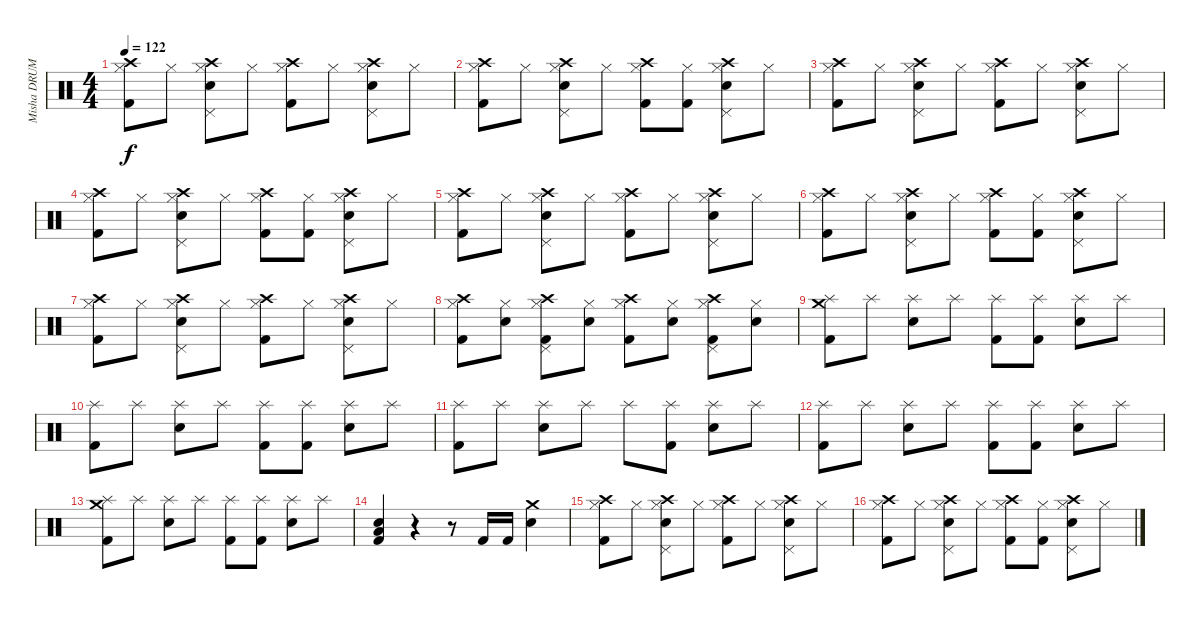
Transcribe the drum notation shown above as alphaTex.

\track ("Misha DRUMS" "Misha DRUM") {instrument percussion}
\staff {score}
\articulation defaults
\ts (4 4)
\tempo 122
\clef neutral
\ks c
("Hi-Hat (closed)" "Crash high (hit)" "Kick (hit) 2").8{dy f} "Hi-Hat (closed)".8 ("Hi-Hat (closed)" "Crash high (hit)" "Pedal Hi-Hat (hit)" "Snare (hit) 2").8 "Hi-Hat (closed)".8 ("Hi-Hat (closed)" "Crash high (hit)" "Kick (hit) 2").8 "Hi-Hat (closed)".8 ("Hi-Hat (closed)" "Crash high (hit)" "Pedal Hi-Hat (hit)" "Snare (hit) 2").8 "Hi-Hat (closed)".8 |
("Hi-Hat (closed)" "Crash high (hit)" "Kick (hit) 2").8 "Hi-Hat (closed)".8 ("Hi-Hat (closed)" "Crash high (hit)" "Pedal Hi-Hat (hit)" "Snare (hit) 2").8 "Hi-Hat (closed)".8 ("Hi-Hat (closed)" "Crash high (hit)" "Kick (hit) 2").8 ("Hi-Hat (closed)" "Kick (hit) 2").8 ("Hi-Hat (closed)" "Crash high (hit)" "Pedal Hi-Hat (hit)" "Snare (hit) 2").8 "Hi-Hat (closed)".8 |
("Hi-Hat (closed)" "Crash high (hit)" "Kick (hit) 2").8 "Hi-Hat (closed)".8 ("Hi-Hat (closed)" "Crash high (hit)" "Pedal Hi-Hat (hit)" "Snare (hit) 2").8 "Hi-Hat (closed)".8 ("Hi-Hat (closed)" "Crash high (hit)" "Kick (hit) 2").8 "Hi-Hat (closed)".8 ("Hi-Hat (closed)" "Crash high (hit)" "Pedal Hi-Hat (hit)" "Snare (hit) 2").8 "Hi-Hat (closed)".8 |
("Hi-Hat (closed)" "Crash high (hit)" "Kick (hit) 2").8 "Hi-Hat (closed)".8 ("Hi-Hat (closed)" "Crash high (hit)" "Pedal Hi-Hat (hit)" "Snare (hit) 2").8 "Hi-Hat (closed)".8 ("Hi-Hat (closed)" "Crash high (hit)" "Kick (hit) 2").8 ("Hi-Hat (closed)" "Kick (hit) 2").8 ("Hi-Hat (closed)" "Crash high (hit)" "Pedal Hi-Hat (hit)" "Snare (hit) 2").8 "Hi-Hat (closed)".8 |
("Hi-Hat (closed)" "Crash high (hit)" "Kick (hit) 2").8 "Hi-Hat (closed)".8 ("Hi-Hat (closed)" "Crash high (hit)" "Pedal Hi-Hat (hit)" "Snare (hit) 2").8 "Hi-Hat (closed)".8 ("Hi-Hat (closed)" "Crash high (hit)" "Kick (hit) 2").8 "Hi-Hat (closed)".8 ("Hi-Hat (closed)" "Crash high (hit)" "Pedal Hi-Hat (hit)" "Snare (hit) 2").8 "Hi-Hat (closed)".8 |
("Hi-Hat (closed)" "Crash high (hit)" "Kick (hit) 2").8 "Hi-Hat (closed)".8 ("Hi-Hat (closed)" "Crash high (hit)" "Pedal Hi-Hat (hit)" "Snare (hit) 2").8 "Hi-Hat (closed)".8 ("Hi-Hat (closed)" "Crash high (hit)" "Kick (hit) 2").8 ("Hi-Hat (closed)" "Kick (hit) 2").8 ("Hi-Hat (closed)" "Crash high (hit)" "Pedal Hi-Hat (hit)" "Snare (hit) 2").8 "Hi-Hat (closed)".8 |
("Hi-Hat (closed)" "Crash high (hit)" "Kick (hit) 2").8 "Hi-Hat (closed)".8 ("Hi-Hat (closed)" "Crash high (hit)" "Pedal Hi-Hat (hit)" "Snare (hit) 2").8 "Hi-Hat (closed)".8 ("Hi-Hat (closed)" "Crash high (hit)" "Kick (hit) 2").8 "Hi-Hat (closed)".8 ("Hi-Hat (closed)" "Crash high (hit)" "Pedal Hi-Hat (hit)" "Snare (hit) 2").8 "Hi-Hat (closed)".8 |
("Hi-Hat (closed)" "Crash high (hit)" "Kick (hit) 2").8 ("Hi-Hat (closed)" "Snare (hit) 2").8 ("Hi-Hat (closed)" "Crash high (hit)" "Pedal Hi-Hat (hit)" "Kick (hit) 2").8 ("Hi-Hat (closed)" "Snare (hit) 2").8 ("Hi-Hat (closed)" "Crash high (hit)" "Kick (hit) 2").8 ("Hi-Hat (closed)" "Snare (hit) 2").8 ("Hi-Hat (closed)" "Crash high (hit)" "Pedal Hi-Hat (hit)" "Kick (hit) 2").8 ("Hi-Hat (closed)" "Snare (hit) 2").8 |
("Splash (hit)" "Crash medium (hit)" "Kick (hit) 2").8 "Splash (hit)".8 ("Splash (hit)" "Snare (hit) 2").8 "Splash (hit)".8 ("Splash (hit)" "Kick (hit) 2").8 ("Splash (hit)" "Kick (hit) 2").8 ("Splash (hit)" "Snare (hit) 2").8 "Splash (hit)".8 |
("Splash (hit)" "Kick (hit) 2").8 "Splash (hit)".8 ("Splash (hit)" "Snare (hit) 2").8 "Splash (hit)".8 ("Splash (hit)" "Kick (hit) 2").8 ("Splash (hit)" "Kick (hit) 2").8 ("Splash (hit)" "Snare (hit) 2").8 "Splash (hit)".8 |
("Splash (hit)" "Kick (hit) 2").8 "Splash (hit)".8 ("Splash (hit)" "Snare (hit) 2").8 "Splash (hit)".8 "Splash (hit)".8 ("Splash (hit)" "Kick (hit) 2").8 ("Splash (hit)" "Snare (hit) 2").8 "Splash (hit)".8 |
("Splash (hit)" "Kick (hit) 2").8 "Splash (hit)".8 ("Splash (hit)" "Snare (hit) 2").8 "Splash (hit)".8 ("Splash (hit)" "Kick (hit) 2").8 ("Splash (hit)" "Kick (hit) 2").8 ("Splash (hit)" "Snare (hit) 2").8 "Splash (hit)".8 |
("Splash (hit)" "Crash medium (hit)" "Kick (hit) 2").8 "Splash (hit)".8 ("Splash (hit)" "Snare (hit) 2").8 "Splash (hit)".8 ("Splash (hit)" "Kick (hit) 2").8 ("Splash (hit)" "Kick (hit) 2").8 ("Splash (hit)" "Snare (hit) 2").8 "Splash (hit)".8 |
("Low Floor Tom (hit)" "Snare (hit) 2" "Kick (hit) 2").4 r.4 r.8 "Kick (hit) 2".16 "Kick (hit) 2".16 ("Crash medium (hit)" "Snare (hit) 2").4 |
("Hi-Hat (closed)" "Crash high (hit)" "Kick (hit) 2").8 "Hi-Hat (closed)".8 ("Hi-Hat (closed)" "Crash high (hit)" "Pedal Hi-Hat (hit)" "Snare (hit) 2").8 "Hi-Hat (closed)".8 ("Hi-Hat (closed)" "Crash high (hit)" "Kick (hit) 2").8 "Hi-Hat (closed)".8 ("Hi-Hat (closed)" "Crash high (hit)" "Pedal Hi-Hat (hit)" "Snare (hit) 2").8 "Hi-Hat (closed)".8 |
("Hi-Hat (closed)" "Crash high (hit)" "Kick (hit) 2").8 "Hi-Hat (closed)".8 ("Hi-Hat (closed)" "Crash high (hit)" "Pedal Hi-Hat (hit)" "Snare (hit) 2").8 "Hi-Hat (closed)".8 ("Hi-Hat (closed)" "Crash high (hit)" "Kick (hit) 2").8 ("Hi-Hat (closed)" "Kick (hit) 2").8 ("Hi-Hat (closed)" "Crash high (hit)" "Pedal Hi-Hat (hit)" "Snare (hit) 2").8 "Hi-Hat (closed)".8
